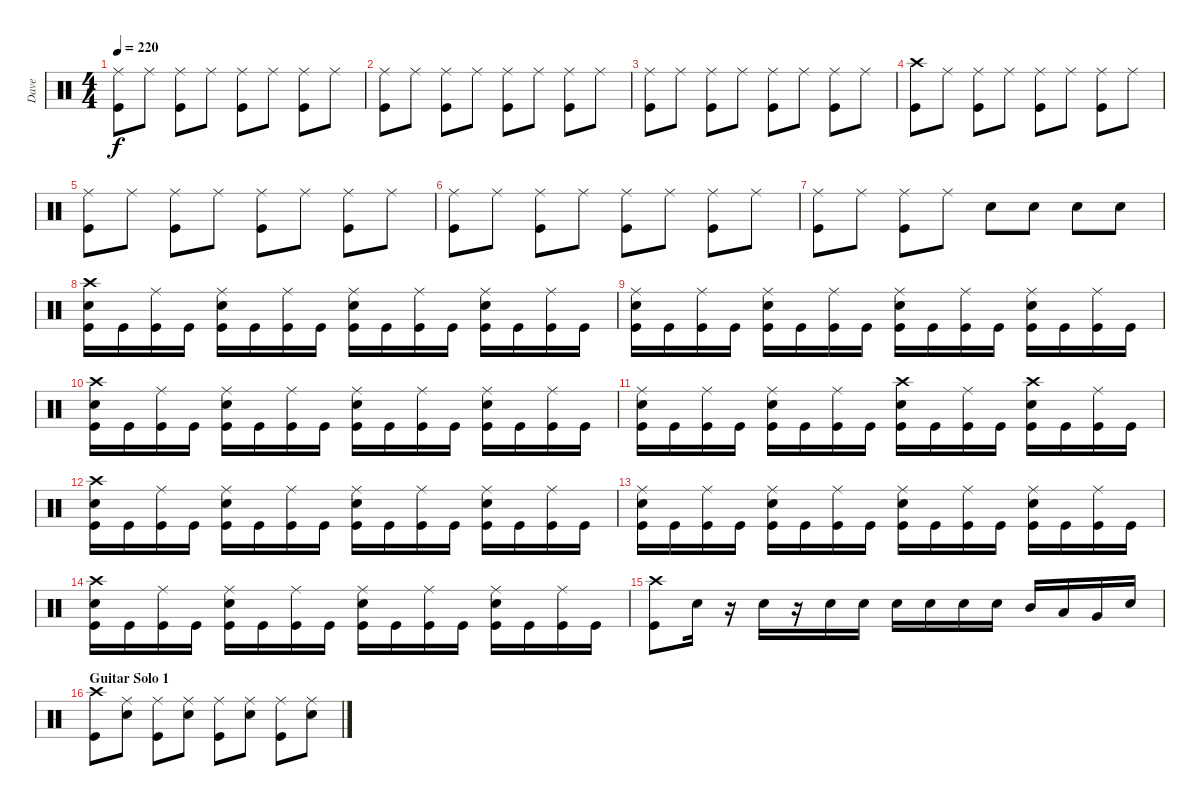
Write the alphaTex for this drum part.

\track ("Dave" "Dave") {instrument percussion}
\staff {score}
\articulation defaults
\ts (4 4)
\tempo 220
\clef neutral
\ks c
("Ride (middle)" "Kick (hit)").8{dy f} "Ride (middle)".8 ("Ride (middle)" "Kick (hit)").8 "Ride (middle)".8 ("Ride (middle)" "Kick (hit)").8 "Ride (middle)".8 ("Ride (middle)" "Kick (hit)").8 "Ride (middle)".8 |
("Ride (middle)" "Kick (hit)").8 "Ride (middle)".8 ("Ride (middle)" "Kick (hit)").8 "Ride (middle)".8 ("Ride (middle)" "Kick (hit)").8 "Ride (middle)".8 ("Ride (middle)" "Kick (hit)").8 "Ride (middle)".8 |
("Ride (middle)" "Kick (hit)").8 "Ride (middle)".8 ("Ride (middle)" "Kick (hit)").8 "Ride (middle)".8 ("Ride (middle)" "Kick (hit)").8 "Ride (middle)".8 ("Ride (middle)" "Kick (hit)").8 "Ride (middle)".8 |
("Crash high (hit)" "Kick (hit)").8 "Ride (middle)".8 ("Ride (middle)" "Kick (hit)").8 "Ride (middle)".8 ("Ride (middle)" "Kick (hit)").8 "Ride (middle)".8 ("Ride (middle)" "Kick (hit)").8 "Ride (middle)".8 |
("Ride (middle)" "Kick (hit)").8 "Ride (middle)".8 ("Ride (middle)" "Kick (hit)").8 "Ride (middle)".8 ("Ride (middle)" "Kick (hit)").8 "Ride (middle)".8 ("Ride (middle)" "Kick (hit)").8 "Ride (middle)".8 |
("Ride (middle)" "Kick (hit)").8 "Ride (middle)".8 ("Ride (middle)" "Kick (hit)").8 "Ride (middle)".8 ("Ride (middle)" "Kick (hit)").8 "Ride (middle)".8 ("Ride (middle)" "Kick (hit)").8 "Ride (middle)".8 |
("Ride (middle)" "Kick (hit)").8 "Ride (middle)".8 ("Ride (middle)" "Kick (hit)").8 "Ride (middle)".8 "Snare (hit) 2".8 "Snare (hit) 2".8 "Snare (hit) 2".8 "Snare (hit) 2".8 |
("Crash high (hit)" "Snare (hit) 2" "Kick (hit)").16 "Kick (hit)".16 ("Ride (middle)" "Kick (hit)").16 "Kick (hit)".16 ("Ride (middle)" "Snare (hit) 2" "Kick (hit)").16 "Kick (hit)".16 ("Ride (middle)" "Kick (hit)").16 "Kick (hit)".16 ("Ride (middle)" "Snare (hit) 2" "Kick (hit)").16 "Kick (hit)".16 ("Ride (middle)" "Kick (hit)").16 "Kick (hit)".16 ("Ride (middle)" "Snare (hit) 2" "Kick (hit)").16 "Kick (hit)".16 ("Ride (middle)" "Kick (hit)").16 "Kick (hit)".16 |
("Ride (middle)" "Snare (hit) 2" "Kick (hit)").16 "Kick (hit)".16 ("Ride (middle)" "Kick (hit)").16 "Kick (hit)".16 ("Ride (middle)" "Snare (hit) 2" "Kick (hit)").16 "Kick (hit)".16 ("Ride (middle)" "Kick (hit)").16 "Kick (hit)".16 ("Ride (middle)" "Snare (hit) 2" "Kick (hit)").16 "Kick (hit)".16 ("Ride (middle)" "Kick (hit)").16 "Kick (hit)".16 ("Ride (middle)" "Snare (hit) 2" "Kick (hit)").16 "Kick (hit)".16 ("Ride (middle)" "Kick (hit)").16 "Kick (hit)".16 |
("Crash high (hit)" "Snare (hit) 2" "Kick (hit)").16 "Kick (hit)".16 ("Ride (middle)" "Kick (hit)").16 "Kick (hit)".16 ("Ride (middle)" "Snare (hit) 2" "Kick (hit)").16 "Kick (hit)".16 ("Ride (middle)" "Kick (hit)").16 "Kick (hit)".16 ("Ride (middle)" "Snare (hit) 2" "Kick (hit)").16 "Kick (hit)".16 ("Ride (middle)" "Kick (hit)").16 "Kick (hit)".16 ("Ride (middle)" "Snare (hit) 2" "Kick (hit)").16 "Kick (hit)".16 ("Ride (middle)" "Kick (hit)").16 "Kick (hit)".16 |
("Ride (middle)" "Snare (hit) 2" "Kick (hit)").16 "Kick (hit)".16 ("Ride (middle)" "Kick (hit)").16 "Kick (hit)".16 ("Ride (middle)" "Snare (hit) 2" "Kick (hit)").16 "Kick (hit)".16 ("Ride (middle)" "Kick (hit)").16 "Kick (hit)".16 ("Crash high (hit)" "Snare (hit) 2" "Kick (hit)").16 "Kick (hit)".16 ("Ride (middle)" "Kick (hit)").16 "Kick (hit)".16 ("Crash high (hit)" "Snare (hit) 2" "Kick (hit)").16 "Kick (hit)".16 ("Ride (middle)" "Kick (hit)").16 "Kick (hit)".16 |
("Crash high (hit)" "Snare (hit) 2" "Kick (hit)").16 "Kick (hit)".16 ("Ride (middle)" "Kick (hit)").16 "Kick (hit)".16 ("Ride (middle)" "Snare (hit) 2" "Kick (hit)").16 "Kick (hit)".16 ("Ride (middle)" "Kick (hit)").16 "Kick (hit)".16 ("Ride (middle)" "Snare (hit) 2" "Kick (hit)").16 "Kick (hit)".16 ("Ride (middle)" "Kick (hit)").16 "Kick (hit)".16 ("Ride (middle)" "Snare (hit) 2" "Kick (hit)").16 "Kick (hit)".16 ("Ride (middle)" "Kick (hit)").16 "Kick (hit)".16 |
("Ride (middle)" "Snare (hit) 2" "Kick (hit)").16 "Kick (hit)".16 ("Ride (middle)" "Kick (hit)").16 "Kick (hit)".16 ("Ride (middle)" "Snare (hit) 2" "Kick (hit)").16 "Kick (hit)".16 ("Ride (middle)" "Kick (hit)").16 "Kick (hit)".16 ("Ride (middle)" "Snare (hit) 2" "Kick (hit)").16 "Kick (hit)".16 ("Ride (middle)" "Kick (hit)").16 "Kick (hit)".16 ("Ride (middle)" "Snare (hit) 2" "Kick (hit)").16 "Kick (hit)".16 ("Ride (middle)" "Kick (hit)").16 "Kick (hit)".16 |
("Crash high (hit)" "Snare (hit) 2" "Kick (hit)").16 "Kick (hit)".16 ("Ride (middle)" "Kick (hit)").16 "Kick (hit)".16 ("Ride (middle)" "Snare (hit) 2" "Kick (hit)").16 "Kick (hit)".16 ("Ride (middle)" "Kick (hit)").16 "Kick (hit)".16 ("Ride (middle)" "Snare (hit) 2" "Kick (hit)").16 "Kick (hit)".16 ("Ride (middle)" "Kick (hit)").16 "Kick (hit)".16 ("Ride (middle)" "Snare (hit) 2" "Kick (hit)").16 "Kick (hit)".16 ("Ride (middle)" "Kick (hit)").16 "Kick (hit)".16 |
("Crash high (hit)" "Kick (hit)").8 "Snare (hit) 2".16 r.16 "Snare (hit) 2".16 r.16 "Snare (hit) 2".16 "Snare (hit) 2".16 "Snare (hit) 2".16 "Snare (hit) 2".16 "Snare (hit) 2".16 "Snare (hit) 2".16 "Mid Tom (hit)".16 "Low Tom (hit)".16 "Very Low Tom (hit)".16 "Snare (hit) 2".16 |
\section ("" "Guitar Solo 1")
("Crash high (hit)" "Kick (hit)").8 ("Ride (middle)" "Snare (hit) 2").8 ("Ride (middle)" "Kick (hit)").8 ("Ride (middle)" "Snare (hit) 2").8 ("Ride (middle)" "Kick (hit)").8 ("Ride (middle)" "Snare (hit) 2").8 ("Ride (middle)" "Kick (hit)").8 ("Ride (middle)" "Snare (hit) 2").8
